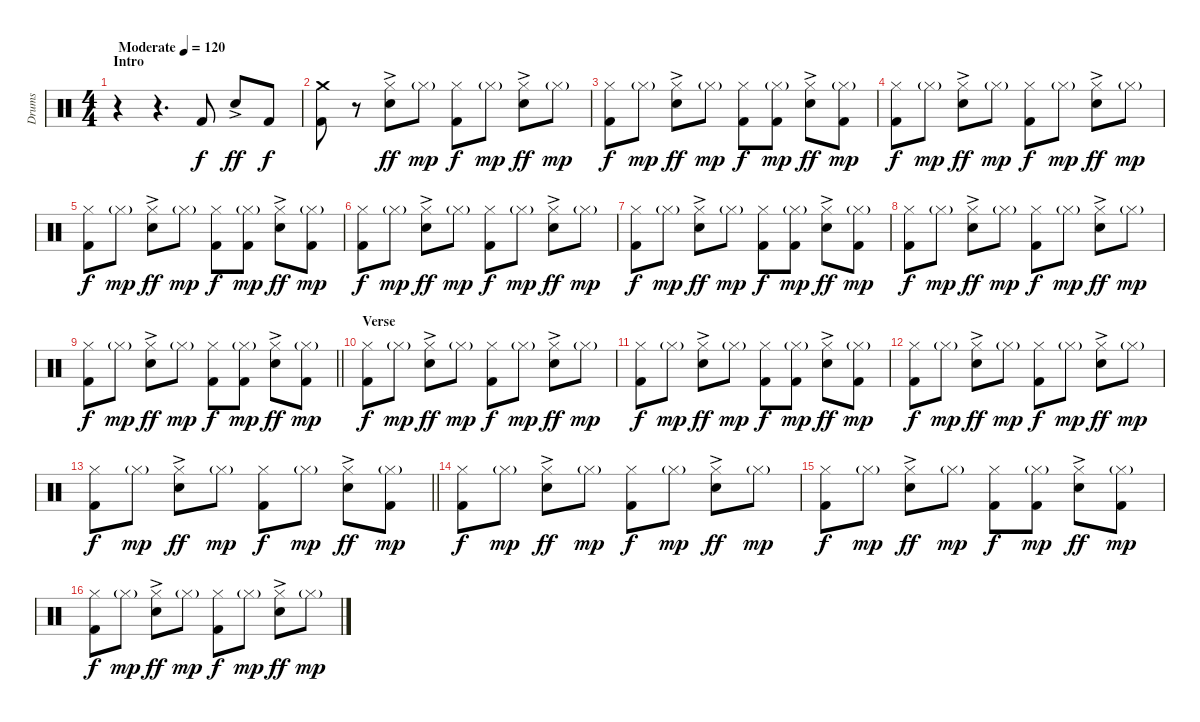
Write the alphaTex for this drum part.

\track ("Drums" "Drums") {instrument percussion}
\staff {score}
\articulation defaults
\ts (4 4)
\section ("" "Intro")
\tempo (120 "Moderate")
\clef neutral
\ks c
r.4{dy f} r.4{d} "Kick (hit) 2".8 "Snare (hit) 2"{ac}.8{dy ff} "Kick (hit) 2".8{dy f} |
("Crash medium (hit)" "Kick (hit) 2").8 r.8 ("Hi-Hat (closed)" "Snare (hit) 2"{ac}).8{dy ff} "Hi-Hat (closed)"{g}.8{dy mp} ("Hi-Hat (closed)" "Kick (hit) 2").8{dy f} "Hi-Hat (closed)"{g}.8{dy mp} ("Hi-Hat (closed)" "Snare (hit) 2"{ac}).8{dy ff} "Hi-Hat (closed)"{g}.8{dy mp} |
("Hi-Hat (closed)" "Kick (hit) 2").8{dy f} "Hi-Hat (closed)"{g}.8{dy mp} ("Hi-Hat (closed)" "Snare (hit) 2"{ac}).8{dy ff} "Hi-Hat (closed)"{g}.8{dy mp} ("Hi-Hat (closed)" "Kick (hit) 2").8{dy f} ("Hi-Hat (closed)"{g} "Kick (hit) 2").8{dy mp} ("Hi-Hat (closed)" "Snare (hit) 2"{ac}).8{dy ff} ("Hi-Hat (closed)"{g} "Kick (hit) 2").8{dy mp} |
("Hi-Hat (closed)" "Kick (hit) 2").8{dy f} "Hi-Hat (closed)"{g}.8{dy mp} ("Hi-Hat (closed)" "Snare (hit) 2"{ac}).8{dy ff} "Hi-Hat (closed)"{g}.8{dy mp} ("Hi-Hat (closed)" "Kick (hit) 2").8{dy f} "Hi-Hat (closed)"{g}.8{dy mp} ("Hi-Hat (closed)" "Snare (hit) 2"{ac}).8{dy ff} "Hi-Hat (closed)"{g}.8{dy mp} |
("Hi-Hat (closed)" "Kick (hit) 2").8{dy f} "Hi-Hat (closed)"{g}.8{dy mp} ("Hi-Hat (closed)" "Snare (hit) 2"{ac}).8{dy ff} "Hi-Hat (closed)"{g}.8{dy mp} ("Hi-Hat (closed)" "Kick (hit) 2").8{dy f} ("Hi-Hat (closed)"{g} "Kick (hit) 2").8{dy mp} ("Hi-Hat (closed)" "Snare (hit) 2"{ac}).8{dy ff} ("Hi-Hat (closed)"{g} "Kick (hit) 2").8{dy mp} |
("Hi-Hat (closed)" "Kick (hit) 2").8{dy f} "Hi-Hat (closed)"{g}.8{dy mp} ("Hi-Hat (closed)" "Snare (hit) 2"{ac}).8{dy ff} "Hi-Hat (closed)"{g}.8{dy mp} ("Hi-Hat (closed)" "Kick (hit) 2").8{dy f} "Hi-Hat (closed)"{g}.8{dy mp} ("Hi-Hat (closed)" "Snare (hit) 2"{ac}).8{dy ff} "Hi-Hat (closed)"{g}.8{dy mp} |
("Hi-Hat (closed)" "Kick (hit) 2").8{dy f} "Hi-Hat (closed)"{g}.8{dy mp} ("Hi-Hat (closed)" "Snare (hit) 2"{ac}).8{dy ff} "Hi-Hat (closed)"{g}.8{dy mp} ("Hi-Hat (closed)" "Kick (hit) 2").8{dy f} ("Hi-Hat (closed)"{g} "Kick (hit) 2").8{dy mp} ("Hi-Hat (closed)" "Snare (hit) 2"{ac}).8{dy ff} ("Hi-Hat (closed)"{g} "Kick (hit) 2").8{dy mp} |
("Hi-Hat (closed)" "Kick (hit) 2").8{dy f} "Hi-Hat (closed)"{g}.8{dy mp} ("Hi-Hat (closed)" "Snare (hit) 2"{ac}).8{dy ff} "Hi-Hat (closed)"{g}.8{dy mp} ("Hi-Hat (closed)" "Kick (hit) 2").8{dy f} "Hi-Hat (closed)"{g}.8{dy mp} ("Hi-Hat (closed)" "Snare (hit) 2"{ac}).8{dy ff} "Hi-Hat (closed)"{g}.8{dy mp} |
\barLineRight lightlight
("Hi-Hat (closed)" "Kick (hit) 2").8{dy f} "Hi-Hat (closed)"{g}.8{dy mp} ("Hi-Hat (closed)" "Snare (hit) 2"{ac}).8{dy ff} "Hi-Hat (closed)"{g}.8{dy mp} ("Hi-Hat (closed)" "Kick (hit) 2").8{dy f} ("Hi-Hat (closed)"{g} "Kick (hit) 2").8{dy mp} ("Hi-Hat (closed)" "Snare (hit) 2"{ac}).8{dy ff} ("Hi-Hat (closed)"{g} "Kick (hit) 2").8{dy mp} |
\section ("" "Verse")
("Hi-Hat (closed)" "Kick (hit) 2").8{dy f} "Hi-Hat (closed)"{g}.8{dy mp} ("Hi-Hat (closed)" "Snare (hit) 2"{ac}).8{dy ff} "Hi-Hat (closed)"{g}.8{dy mp} ("Hi-Hat (closed)" "Kick (hit) 2").8{dy f} "Hi-Hat (closed)"{g}.8{dy mp} ("Hi-Hat (closed)" "Snare (hit) 2"{ac}).8{dy ff} "Hi-Hat (closed)"{g}.8{dy mp} |
("Hi-Hat (closed)" "Kick (hit) 2").8{dy f} "Hi-Hat (closed)"{g}.8{dy mp} ("Hi-Hat (closed)" "Snare (hit) 2"{ac}).8{dy ff} "Hi-Hat (closed)"{g}.8{dy mp} ("Hi-Hat (closed)" "Kick (hit) 2").8{dy f} ("Hi-Hat (closed)"{g} "Kick (hit) 2").8{dy mp} ("Hi-Hat (closed)" "Snare (hit) 2"{ac}).8{dy ff} ("Hi-Hat (closed)"{g} "Kick (hit) 2").8{dy mp} |
("Hi-Hat (closed)" "Kick (hit) 2").8{dy f} "Hi-Hat (closed)"{g}.8{dy mp} ("Hi-Hat (closed)" "Snare (hit) 2"{ac}).8{dy ff} "Hi-Hat (closed)"{g}.8{dy mp} ("Hi-Hat (closed)" "Kick (hit) 2").8{dy f} "Hi-Hat (closed)"{g}.8{dy mp} ("Hi-Hat (closed)" "Snare (hit) 2"{ac}).8{dy ff} "Hi-Hat (closed)"{g}.8{dy mp} |
\barLineRight lightlight
("Hi-Hat (closed)" "Kick (hit) 2").8{dy f} "Hi-Hat (closed)"{g}.8{dy mp} ("Hi-Hat (closed)" "Snare (hit) 2"{ac}).8{dy ff} "Hi-Hat (closed)"{g}.8{dy mp} ("Hi-Hat (closed)" "Kick (hit) 2").8{dy f} "Hi-Hat (closed)"{g}.8{dy mp} ("Hi-Hat (closed)" "Snare (hit) 2"{ac}).8{dy ff} ("Hi-Hat (closed)"{g} "Kick (hit) 2").8{dy mp} |
("Hi-Hat (closed)" "Kick (hit) 2").8{dy f} "Hi-Hat (closed)"{g}.8{dy mp} ("Hi-Hat (closed)" "Snare (hit) 2"{ac}).8{dy ff} "Hi-Hat (closed)"{g}.8{dy mp} ("Hi-Hat (closed)" "Kick (hit) 2").8{dy f} "Hi-Hat (closed)"{g}.8{dy mp} ("Hi-Hat (closed)" "Snare (hit) 2"{ac}).8{dy ff} "Hi-Hat (closed)"{g}.8{dy mp} |
("Hi-Hat (closed)" "Kick (hit) 2").8{dy f} "Hi-Hat (closed)"{g}.8{dy mp} ("Hi-Hat (closed)" "Snare (hit) 2"{ac}).8{dy ff} "Hi-Hat (closed)"{g}.8{dy mp} ("Hi-Hat (closed)" "Kick (hit) 2").8{dy f} ("Hi-Hat (closed)"{g} "Kick (hit) 2").8{dy mp} ("Hi-Hat (closed)" "Snare (hit) 2"{ac}).8{dy ff} ("Hi-Hat (closed)"{g} "Kick (hit) 2").8{dy mp} |
("Hi-Hat (closed)" "Kick (hit) 2").8{dy f} "Hi-Hat (closed)"{g}.8{dy mp} ("Hi-Hat (closed)" "Snare (hit) 2"{ac}).8{dy ff} "Hi-Hat (closed)"{g}.8{dy mp} ("Hi-Hat (closed)" "Kick (hit) 2").8{dy f} "Hi-Hat (closed)"{g}.8{dy mp} ("Hi-Hat (closed)" "Snare (hit) 2"{ac}).8{dy ff} "Hi-Hat (closed)"{g}.8{dy mp}
